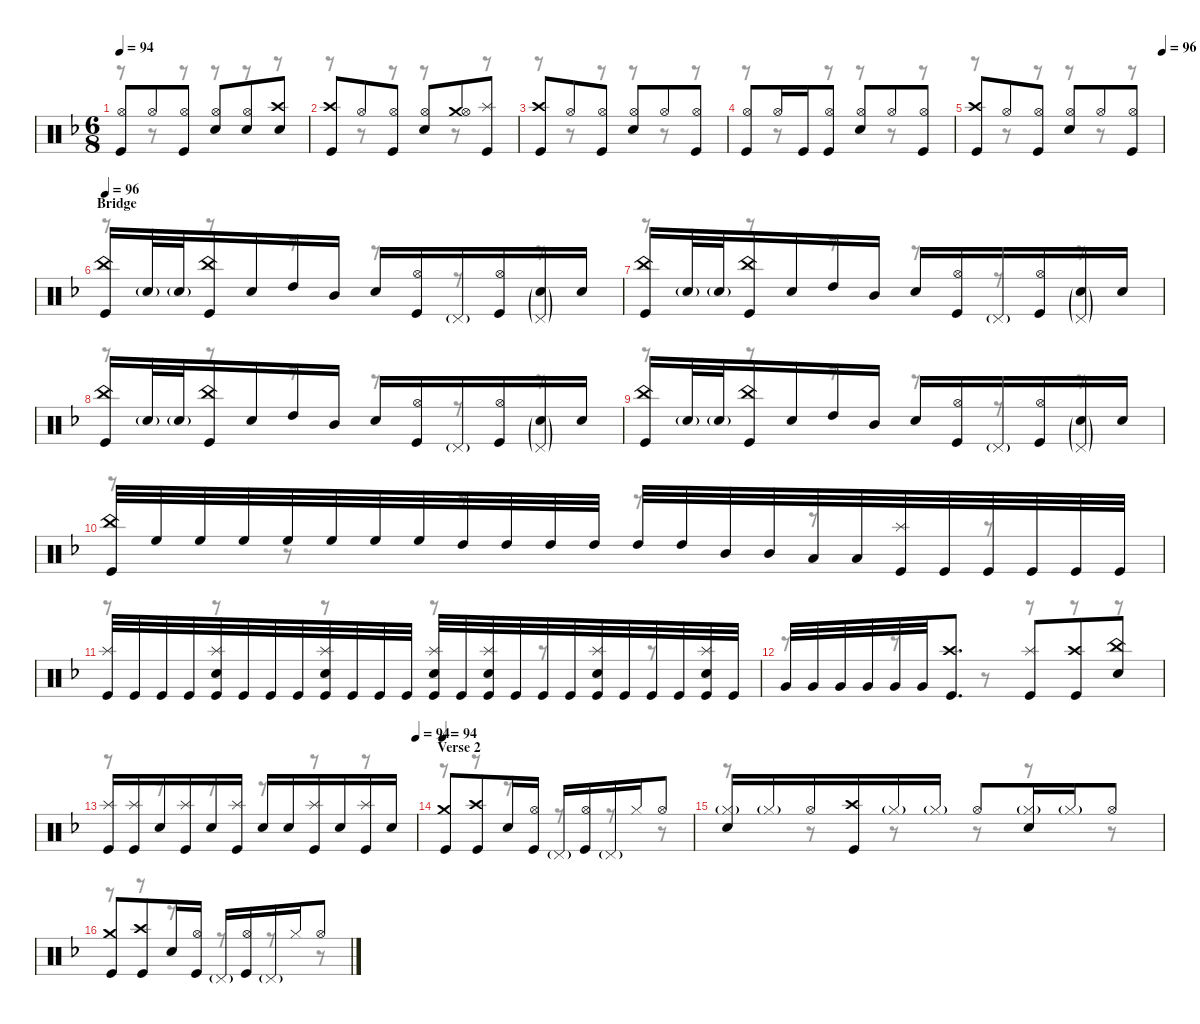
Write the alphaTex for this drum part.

\defaultSystemsLayout 4
\hideDynamics
\bracketExtendMode nobrackets
\singleTrackTrackNamePolicy hidden
\multiTrackTrackNamePolicy hidden
\otherSystemsTrackNameOrientation horizontal
\track ("M. Lopez" "drm.") {instrument percussion}
\staff {score}
\articulation defaults
\voice
\ts (6 8)
\tempo 94
\clef neutral
\ks dminor
("Hi-Hat (open)"{acc forcenatural} "Kick (hit)"{acc forcenatural}).8{dy f beam Up} "Hi-Hat (open)"{acc forcenatural}.8{beam Up} ("Hi-Hat (open)"{acc forcenatural} "Kick (hit)"{acc forcenatural}).8{beam Up} ("Hi-Hat (open)"{acc forcenatural} "Snare (hit) 2"{acc forcenatural}).8{beam Up} ("Hi-Hat (open)"{acc forcenatural} "Snare (hit) 2"{acc forcenatural}).8{beam Up} ("Crash high (hit)"{acc forcenatural} "Snare (hit) 2"{acc forcenatural}).8{beam Up} |
("Crash high (hit)"{acc forcenatural} "Kick (hit)"{acc forcenatural}).8{beam Up} "Hi-Hat (open)"{acc forcenatural}.8{beam Up} ("Hi-Hat (open)"{acc forcenatural} "Kick (hit)"{acc forcenatural}).8{beam Up} ("Hi-Hat (open)"{acc forcenatural} "Snare (hit) 2"{acc forcenatural}).8{beam Up} ("Crash medium (hit)"{acc forcenatural} "Hi-Hat (open)"{acc forcenatural}).8{dy mf beam Up} ("Splash (hit)"{acc forcenatural} "Kick (hit)"{acc forcenatural}).8{beam Up} |
("Crash high (hit)"{acc forcenatural} "Kick (hit)"{acc forcenatural}).8{dy f beam Up} "Hi-Hat (open)"{acc forcenatural}.8{beam Up} ("Hi-Hat (open)"{acc forcenatural} "Kick (hit)"{acc forcenatural}).8{beam Up} ("Hi-Hat (open)"{acc forcenatural} "Snare (hit) 2"{acc forcenatural}).8{beam Up} "Hi-Hat (open)"{acc forcenatural}.8{beam Up} ("Hi-Hat (open)"{acc forcenatural} "Kick (hit)"{acc forcenatural}).8{beam Up} |
("Hi-Hat (open)"{acc forcenatural} "Kick (hit)"{acc forcenatural}).8{beam Up} "Hi-Hat (open)"{acc forcenatural}.16{beam Up} "Kick (hit)"{acc forcenatural}.16{beam Up} ("Hi-Hat (open)"{acc forcenatural} "Kick (hit)"{acc forcenatural}).8{beam Up} ("Hi-Hat (open)"{acc forcenatural} "Snare (hit) 2"{acc forcenatural}).8{beam Up} "Hi-Hat (open)"{acc forcenatural}.8{beam Up} ("Hi-Hat (open)"{acc forcenatural} "Kick (hit)"{acc forcenatural}).8{beam Up} |
\tempo (96 1)
("Crash high (hit)"{acc forcenatural} "Kick (hit)"{acc forcenatural}).8{beam Up} "Hi-Hat (open)"{acc forcenatural}.8{beam Up} ("Hi-Hat (open)"{acc forcenatural} "Kick (hit)"{acc forcenatural}).8{beam Up} ("Hi-Hat (open)"{acc forcenatural} "Snare (hit) 2"{acc forcenatural}).8{beam Up} "Hi-Hat (open)"{acc forcenatural}.8{beam Up} ("Hi-Hat (open)"{acc forcenatural} "Kick (hit)"{acc forcenatural}).8{beam Up} |
\section ("" "Bridge")
\tempo 96
("China (hit)"{acc forcenatural} "Kick (hit)"{acc forcenatural}).16{beam Up} "Snare (hit) 2"{g acc forcenatural}.32{dy ff beam Up} "Snare (hit) 2"{g acc forcenatural}.32{beam Up} ("China (hit)"{acc forcenatural} "Kick (hit)"{acc forcenatural}).16{dy mf beam Up} "Snare (hit) 2"{acc forcenatural}.16{dy f beam Up} "High Tom (hit)"{acc forcenatural}.16{beam Up} "Mid Tom (hit)"{acc forcenatural}.16{beam Up} "Snare (hit) 2"{acc forcenatural}.16{beam Up} ("Hi-Hat (open)"{acc forcenatural} "Kick (hit)"{acc forcenatural}).16{beam Up} "Pedal Hi-Hat (hit)"{g acc forcenatural}.16{dy mf beam Up} ("Hi-Hat (open)"{acc forcenatural} "Kick (hit)"{acc forcenatural}).16{dy f beam Up} ("Pedal Hi-Hat (hit)"{g acc forcenatural} "Snare (hit) 2"{g acc forcenatural}).16{dy mf beam Up} "Snare (hit) 2"{acc forcenatural}.16{dy f beam Up} |
("China (hit)"{acc forcenatural} "Kick (hit)"{acc forcenatural}).16{beam Up} "Snare (hit) 2"{g acc forcenatural}.32{dy ff beam Up} "Snare (hit) 2"{g acc forcenatural}.32{beam Up} ("China (hit)"{acc forcenatural} "Kick (hit)"{acc forcenatural}).16{dy mf beam Up} "Snare (hit) 2"{acc forcenatural}.16{dy f beam Up} "High Tom (hit)"{acc forcenatural}.16{beam Up} "Mid Tom (hit)"{acc forcenatural}.16{beam Up} "Snare (hit) 2"{acc forcenatural}.16{beam Up} ("Hi-Hat (open)"{acc forcenatural} "Kick (hit)"{acc forcenatural}).16{beam Up} "Pedal Hi-Hat (hit)"{g acc forcenatural}.16{dy mf beam Up} ("Hi-Hat (open)"{acc forcenatural} "Kick (hit)"{acc forcenatural}).16{dy f beam Up} ("Pedal Hi-Hat (hit)"{g acc forcenatural} "Snare (hit) 2"{g acc forcenatural}).16{dy mf beam Up} "Snare (hit) 2"{acc forcenatural}.16{dy f beam Up} |
("China (hit)"{acc forcenatural} "Kick (hit)"{acc forcenatural}).16{beam Up} "Snare (hit) 2"{g acc forcenatural}.32{dy ff beam Up} "Snare (hit) 2"{g acc forcenatural}.32{beam Up} ("China (hit)"{acc forcenatural} "Kick (hit)"{acc forcenatural}).16{dy mf beam Up} "Snare (hit) 2"{acc forcenatural}.16{dy f beam Up} "High Tom (hit)"{acc forcenatural}.16{beam Up} "Mid Tom (hit)"{acc forcenatural}.16{beam Up} "Snare (hit) 2"{acc forcenatural}.16{beam Up} ("Hi-Hat (open)"{acc forcenatural} "Kick (hit)"{acc forcenatural}).16{beam Up} "Pedal Hi-Hat (hit)"{g acc forcenatural}.16{dy mf beam Up} ("Hi-Hat (open)"{acc forcenatural} "Kick (hit)"{acc forcenatural}).16{dy f beam Up} ("Pedal Hi-Hat (hit)"{g acc forcenatural} "Snare (hit) 2"{g acc forcenatural}).16{dy mf beam Up} "Snare (hit) 2"{acc forcenatural}.16{dy f beam Up} |
("China (hit)"{acc forcenatural} "Kick (hit)"{acc forcenatural}).16{beam Up} "Snare (hit) 2"{g acc forcenatural}.32{dy ff beam Up} "Snare (hit) 2"{g acc forcenatural}.32{beam Up} ("China (hit)"{acc forcenatural} "Kick (hit)"{acc forcenatural}).16{dy mf beam Up} "Snare (hit) 2"{acc forcenatural}.16{dy f beam Up} "High Tom (hit)"{acc forcenatural}.16{beam Up} "Mid Tom (hit)"{acc forcenatural}.16{beam Up} "Snare (hit) 2"{acc forcenatural}.16{beam Up} ("Hi-Hat (open)"{acc forcenatural} "Kick (hit)"{acc forcenatural}).16{beam Up} "Pedal Hi-Hat (hit)"{g acc forcenatural}.16{dy mf beam Up} ("Hi-Hat (open)"{acc forcenatural} "Kick (hit)"{acc forcenatural}).16{dy f beam Up} ("Pedal Hi-Hat (hit)"{g acc forcenatural} "Snare (hit) 2"{g acc forcenatural}).16{dy mf beam Up} "Snare (hit) 2"{acc forcenatural}.16{dy f beam Up} |
("China (hit)"{acc forcenatural} "Kick (hit)"{acc forcenatural}).32{dy mf beam Up} "High Floor Tom (hit)"{acc forcenatural}.32{beam Up} "High Floor Tom (hit)"{acc forcenatural}.32{dy f beam Up} "High Floor Tom (hit)"{acc forcenatural}.32{dy mf beam Up} "High Floor Tom (hit)"{acc forcenatural}.32{beam Up} "High Floor Tom (hit)"{acc forcenatural}.32{beam Up} "High Floor Tom (hit)"{acc forcenatural}.32{dy ff beam Up} "High Floor Tom (hit)"{acc forcenatural}.32{dy mf beam Up} "High Tom (hit)"{acc forcenatural}.32{beam Up} "High Tom (hit)"{acc forcenatural}.32{beam Up} "High Tom (hit)"{acc forcenatural}.32{beam Up} "High Tom (hit)"{acc forcenatural}.32{beam Up} "High Tom (hit)"{acc forcenatural}.32{dy ff beam Up} "High Tom (hit)"{acc forcenatural}.32{dy mf beam Up} "Mid Tom (hit)"{acc forcenatural}.32{beam Up} "Mid Tom (hit)"{acc forcenatural}.32{beam Up} "Low Tom (hit)"{acc forcenatural}.32{beam Up} "Low Tom (hit)"{acc forcenatural}.32{beam Up} ("Splash (hit)"{acc forcenatural} "Kick (hit)"{acc forcenatural}).32{dy f beam Up} "Kick (hit)"{acc forcenatural}.32{beam Up} "Kick (hit)"{acc forcenatural}.32{beam Up} "Kick (hit)"{acc forcenatural}.32{beam Up} "Kick (hit)"{acc forcenatural}.32{beam Up} "Kick (hit)"{acc forcenatural}.32{beam Up} |
("Splash (hit)"{acc forcenatural} "Kick (hit)"{acc forcenatural}).32{beam Up} "Kick (hit)"{acc forcenatural}.32{beam Up} "Kick (hit)"{acc forcenatural}.32{beam Up} "Kick (hit)"{acc forcenatural}.32{beam Up} ("Splash (hit)"{acc forcenatural} "Snare (hit) 2"{acc forcenatural} "Kick (hit)"{acc forcenatural}).32{beam Up} "Kick (hit)"{acc forcenatural}.32{beam Up} "Kick (hit)"{acc forcenatural}.32{beam Up} "Kick (hit)"{acc forcenatural}.32{beam Up} ("Splash (hit)"{acc forcenatural} "Snare (hit) 2"{acc forcenatural} "Kick (hit)"{acc forcenatural}).32{beam Up} "Kick (hit)"{acc forcenatural}.32{beam Up} "Kick (hit)"{acc forcenatural}.32{beam Up} "Kick (hit)"{acc forcenatural}.32{beam Up} ("Splash (hit)"{acc forcenatural} "Snare (hit) 2"{acc forcenatural} "Kick (hit)"{acc forcenatural}).32{beam Up} "Kick (hit)"{acc forcenatural}.32{beam Up} ("Splash (hit)"{acc forcenatural} "Snare (hit) 2"{acc forcenatural} "Kick (hit)"{acc forcenatural}).32{beam Up} "Kick (hit)"{acc forcenatural}.32{beam Up} "Kick (hit)"{acc forcenatural}.32{beam Up} "Kick (hit)"{acc forcenatural}.32{beam Up} ("Splash (hit)"{acc forcenatural} "Snare (hit) 2"{acc forcenatural} "Kick (hit)"{acc forcenatural}).32{beam Up} "Kick (hit)"{acc forcenatural}.32{beam Up} "Kick (hit)"{acc forcenatural}.32{beam Up} "Kick (hit)"{acc forcenatural}.32{beam Up} ("Splash (hit)"{acc forcenatural} "Snare (hit) 2"{acc forcenatural} "Kick (hit)"{acc forcenatural}).32{beam Up} "Kick (hit)"{acc forcenatural}.32{beam Up} |
"Very Low Tom (hit)"{acc forcenatural}.32{dy mf beam Up} "Very Low Tom (hit)"{acc forcenatural}.32{beam Up} "Very Low Tom (hit)"{acc forcenatural}.32{beam Up} "Very Low Tom (hit)"{acc forcenatural}.32{beam Up} "Very Low Tom (hit)"{acc forcenatural}.32{beam Up} "Very Low Tom (hit)"{acc forcenatural}.32{beam Up} ("Crash high (hit)"{acc forcenatural} "Kick (hit)"{acc forcenatural}).8{d dy f beam Up} ("Splash (hit)"{acc forcenatural} "Kick (hit)"{acc forcenatural}).8{beam Up} ("Crash high (hit)"{acc forcenatural} "Kick (hit)"{acc forcenatural}).8{beam Up} ("China (hit)"{acc forcenatural} "Snare (hit) 2"{acc forcenatural}).8{beam Up} |
\tempo (94 1)
("Splash (hit)"{acc forcenatural} "Kick (hit)"{acc forcenatural}).16{beam Up} ("Splash (hit)"{acc forcenatural} "Kick (hit)"{acc forcenatural}).16{beam Up} "Snare (hit) 2"{acc forcenatural}.16{beam Up} ("Splash (hit)"{acc forcenatural} "Kick (hit)"{acc forcenatural}).16{beam Up} "Snare (hit) 2"{acc forcenatural}.16{beam Up} ("Splash (hit)"{acc forcenatural} "Kick (hit)"{acc forcenatural}).16{beam Up} "Snare (hit) 2"{acc forcenatural}.16{beam Up} "Snare (hit) 2"{acc forcenatural}.16{beam Up} ("Splash (hit)"{acc forcenatural} "Kick (hit)"{acc forcenatural}).16{beam Up} "Snare (hit) 2"{acc forcenatural}.16{beam Up} ("Splash (hit)"{acc forcenatural} "Kick (hit)"{acc forcenatural}).16{beam Up} "Snare (hit) 2"{acc forcenatural}.16{beam Up} |
\section ("" "Verse 2")
\tempo 94
("Crash medium (hit)"{acc forcenatural} "Kick (hit)"{acc forcenatural}).8{beam Up} ("Crash high (hit)"{acc forcenatural} "Kick (hit)"{acc forcenatural}).8{beam Up} "Snare (hit) 2"{acc forcenatural}.16{beam Up} ("Hi-Hat (open)"{acc forcenatural} "Kick (hit)"{acc forcenatural}).16{beam Up} "Pedal Hi-Hat (hit)"{g acc forcenatural}.16{dy ff beam Up} ("Hi-Hat (open)"{acc forcenatural} "Kick (hit)"{acc forcenatural}).16{dy f beam Up} "Pedal Hi-Hat (hit)"{g acc forcenatural}.16{dy ff beam Up} "Hi-Hat (closed)"{acc forcenatural}.16{dy f beam Up} "Hi-Hat (open)"{acc forcenatural}.8{beam Up} |
("Hi-Hat (closed)"{g acc forcenatural} "Snare (hit) 2"{acc forcenatural}).16{beam Up} "Hi-Hat (closed)"{g acc forcenatural}.16{dy ff beam Up} "Hi-Hat (open)"{acc forcenatural}.16{dy f beam Up} ("Crash high (hit)"{acc forcenatural} "Kick (hit)"{acc forcenatural}).16{beam Up} "Hi-Hat (closed)"{g acc forcenatural}.16{dy ff beam Up} "Hi-Hat (closed)"{g acc forcenatural}.16{beam Up} "Hi-Hat (open)"{acc forcenatural}.8{dy f beam Up} ("Hi-Hat (closed)"{g acc forcenatural} "Snare (hit) 2"{acc forcenatural}).16{beam Up} "Hi-Hat (closed)"{g acc forcenatural}.16{dy ff beam Up} "Hi-Hat (open)"{acc forcenatural}.8{dy f beam Up} |
("Crash medium (hit)"{acc forcenatural} "Kick (hit)"{acc forcenatural}).8{beam Up} ("Crash high (hit)"{acc forcenatural} "Kick (hit)"{acc forcenatural}).8{beam Up} "Snare (hit) 2"{acc forcenatural}.16{beam Up} ("Hi-Hat (open)"{acc forcenatural} "Kick (hit)"{acc forcenatural}).16{beam Up} "Pedal Hi-Hat (hit)"{g acc forcenatural}.16{dy ff beam Up} ("Hi-Hat (open)"{acc forcenatural} "Kick (hit)"{acc forcenatural}).16{dy f beam Up} "Pedal Hi-Hat (hit)"{g acc forcenatural}.16{dy ff beam Up} "Hi-Hat (closed)"{acc forcenatural}.16{dy f beam Up} "Hi-Hat (open)"{acc forcenatural}.8{beam Up}
\voice
\clef neutral
\ottava regular
\simile none
\ks dminor
r.8{dy mf beam Down} r.8{beam Down} r.8{beam Down} r.8{beam Down} r.8{beam Down} r.8{beam Down} |
r.8{beam Down} r.8{beam Down} r.8{beam Down} r.8{beam Down} r.8{beam Down} r.8{beam Down} |
r.8{beam Down} r.8{beam Down} r.8{beam Down} r.8{beam Down} r.8{beam Down} r.8{beam Down} |
r.8{beam Down} r.8{beam Down} r.8{beam Down} r.8{beam Down} r.8{beam Down} r.8{beam Down} |
r.8{beam Down} r.8{beam Down} r.8{beam Down} r.8{beam Down} r.8{beam Down} r.8{beam Down} |
r.8{beam Down} r.8{beam Down} r.8{beam Down} r.8{beam Down} r.8{beam Down} r.8{beam Down} |
r.8{beam Down} r.8{beam Down} r.8{beam Down} r.8{beam Down} r.8{beam Down} r.8{beam Down} |
r.8{beam Down} r.8{beam Down} r.8{beam Down} r.8{beam Down} r.8{beam Down} r.8{beam Down} |
r.8{beam Down} r.8{beam Down} r.8{beam Down} r.8{beam Down} r.8{beam Down} r.8{beam Down} |
r.8{beam Down} r.8{beam Down} r.8{beam Down} r.8{beam Down} r.8{beam Down} r.8{beam Down} |
r.8{beam Down} r.8{beam Down} r.8{beam Down} r.8{beam Down} r.8{beam Down} r.8{beam Down} |
r.8{beam Down} r.8{beam Down} r.8{beam Down} r.8{beam Down} r.8{beam Down} r.8{beam Down} |
r.8{beam Down} r.8{beam Down} r.8{beam Down} r.8{beam Down} r.8{beam Down} r.8{beam Down} |
r.8{beam Down} r.8{beam Down} r.8{beam Down} r.8{beam Down} r.8{beam Down} r.8{beam Down} |
r.8{beam Down} r.8{beam Down} r.8{beam Down} r.8{beam Down} r.8{beam Down} r.8{beam Down} |
r.8{beam Down} r.8{beam Down} r.8{beam Down} r.8{beam Down} r.8{beam Down} r.8{beam Down}
